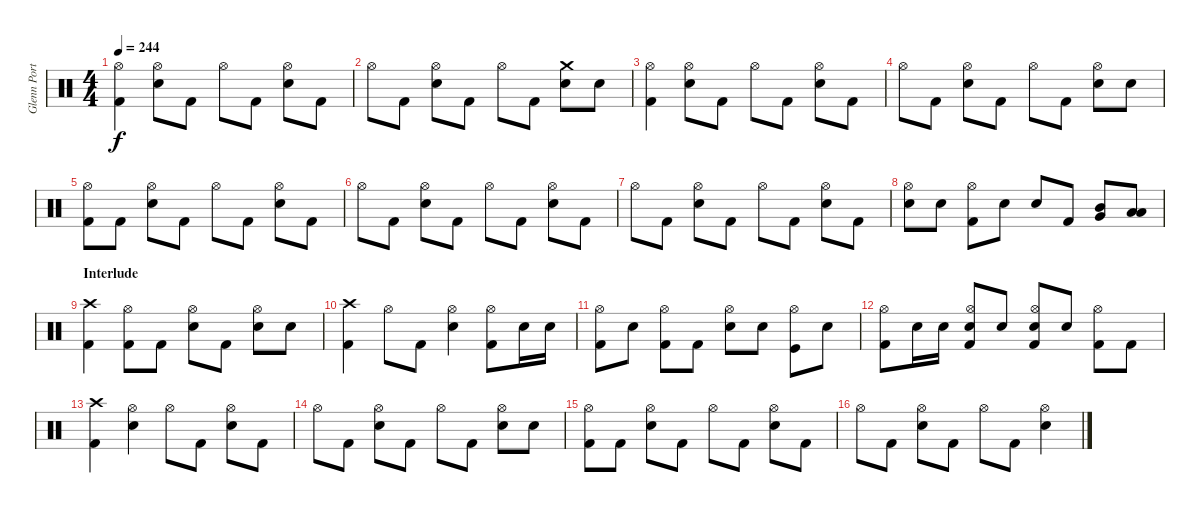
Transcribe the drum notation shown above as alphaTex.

\track ("Glenn Porter - Drums" "Glenn Port") {instrument percussion}
\staff {score}
\articulation defaults
\ts (4 4)
\tempo 244
\clef neutral
\ks c
("Kick (hit) 2" "Hi-Hat (open)").4{dy f} ("Snare (hit) 2" "Hi-Hat (open)").8 "Kick (hit) 2".8 "Hi-Hat (open)".8 "Kick (hit) 2".8 ("Snare (hit) 2" "Hi-Hat (open)").8 "Kick (hit) 2".8 |
"Hi-Hat (open)".8 "Kick (hit) 2".8 ("Snare (hit) 2" "Hi-Hat (open)").8 "Kick (hit) 2".8 "Hi-Hat (open)".8 "Kick (hit) 2".8 ("Snare (hit) 2" "Crash medium (hit)").8 "Snare (hit) 2".8 |
("Kick (hit) 2" "Hi-Hat (open)").4 ("Snare (hit) 2" "Hi-Hat (open)").8 "Kick (hit) 2".8 "Hi-Hat (open)".8 "Kick (hit) 2".8 ("Snare (hit) 2" "Hi-Hat (open)").8 "Kick (hit) 2".8 |
"Hi-Hat (open)".8 "Kick (hit) 2".8 ("Snare (hit) 2" "Hi-Hat (open)").8 "Kick (hit) 2".8 "Hi-Hat (open)".8 "Kick (hit) 2".8 ("Snare (hit) 2" "Hi-Hat (open)").8 "Snare (hit) 2".8 |
("Kick (hit) 2" "Hi-Hat (open)").8 "Kick (hit) 2".8 ("Snare (hit) 2" "Hi-Hat (open)").8 "Kick (hit) 2".8 "Hi-Hat (open)".8 "Kick (hit) 2".8 ("Snare (hit) 2" "Hi-Hat (open)").8 "Kick (hit) 2".8 |
"Hi-Hat (open)".8 "Kick (hit) 2".8 ("Snare (hit) 2" "Hi-Hat (open)").8 "Kick (hit) 2".8 "Hi-Hat (open)".8 "Kick (hit) 2".8 ("Snare (hit) 2" "Hi-Hat (open)").8 "Kick (hit) 2".8 |
"Hi-Hat (open)".8 "Kick (hit) 2".8 ("Snare (hit) 2" "Hi-Hat (open)").8 "Kick (hit) 2".8 "Hi-Hat (open)".8 "Kick (hit) 2".8 ("Snare (hit) 2" "Hi-Hat (open)").8 "Kick (hit) 2".8 |
("Snare (hit) 2" "Hi-Hat (open)").8 "Snare (hit) 2".8 ("Kick (hit) 2" "Hi-Hat (open)").8 "Snare (hit) 2".8 "Snare (hit) 2".8 "Kick (hit) 2".8 ("Mid Tom (hit)" "Very Low Tom (hit)").8 ("Low Tom (hit)" "Low Floor Tom (hit)").8 |
\section ("" "Interlude")
("Kick (hit) 2" "Crash high (hit)").4 ("Kick (hit) 2" "Hi-Hat (open)").8 "Kick (hit) 2".8 ("Snare (hit) 2" "Hi-Hat (open)").8 "Kick (hit) 2".8 ("Snare (hit) 2" "Hi-Hat (open)").8 "Snare (hit) 2".8 |
("Kick (hit) 2" "Crash high (hit)").4 "Hi-Hat (open)".8 "Kick (hit) 2".8 ("Snare (hit) 2" "Hi-Hat (open)").4 ("Kick (hit) 2" "Hi-Hat (open)").8 "Snare (hit) 2".16 "Snare (hit) 2".16 |
("Kick (hit) 2" "Hi-Hat (open)").8 "Snare (hit) 2".8 ("Kick (hit) 2" "Hi-Hat (open)").8 "Kick (hit) 2".8 ("Snare (hit) 2" "Hi-Hat (open)").8 "Snare (hit) 2".8 ("Kick (hit)" "Hi-Hat (open)").8 "Snare (hit) 2".8 |
("Kick (hit) 2" "Hi-Hat (open)").8 "Snare (hit) 2".16 "Snare (hit) 2".16 ("Snare (hit) 2" "Kick (hit) 2" "Hi-Hat (open)").8 "Snare (hit) 2".8 ("Snare (hit) 2" "Kick (hit) 2" "Hi-Hat (open)").8 "Snare (hit) 2".8 ("Kick (hit) 2" "Hi-Hat (open)").8 "Kick (hit) 2".8 |
("Kick (hit) 2" "Crash high (hit)").4 ("Snare (hit) 2" "Hi-Hat (open)").4 "Hi-Hat (open)".8 "Kick (hit) 2".8 ("Snare (hit) 2" "Hi-Hat (open)").8 "Kick (hit) 2".8 |
"Hi-Hat (open)".8 "Kick (hit) 2".8 ("Snare (hit) 2" "Hi-Hat (open)").8 "Kick (hit) 2".8 "Hi-Hat (open)".8 "Kick (hit) 2".8 ("Snare (hit) 2" "Hi-Hat (open)").8 "Snare (hit) 2".8 |
("Kick (hit) 2" "Hi-Hat (open)").8 "Kick (hit) 2".8 ("Snare (hit) 2" "Hi-Hat (open)").8 "Kick (hit) 2".8 "Hi-Hat (open)".8 "Kick (hit) 2".8 ("Snare (hit) 2" "Hi-Hat (open)").8 "Kick (hit) 2".8 |
"Hi-Hat (open)".8 "Kick (hit) 2".8 ("Snare (hit) 2" "Hi-Hat (open)").8 "Kick (hit) 2".8 "Hi-Hat (open)".8 "Kick (hit) 2".8 ("Snare (hit) 2" "Hi-Hat (open)").4
